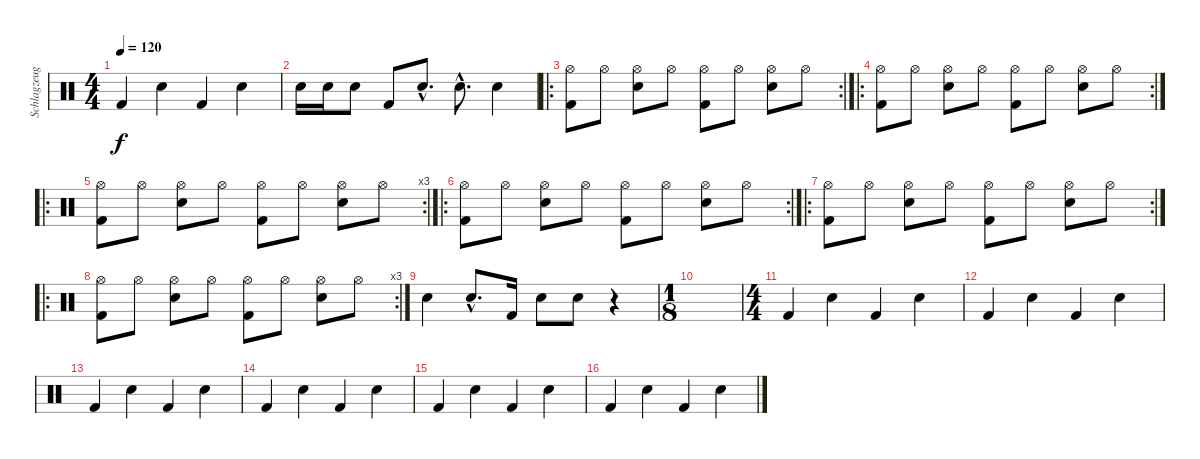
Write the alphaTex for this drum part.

\track ("Schlagzeug" "Schlagzeug") {instrument percussion}
\staff {score}
\articulation defaults
\ts (4 4)
\tempo 120
\clef neutral
\ks c "Kick (hit) 2".4{dy f} "Snare (hit) 2".4 "Kick (hit) 2".4 "Snare (hit) 2".4
|
"Snare (hit) 2".16 "Snare (hit) 2".16 "Snare (hit) 2".8 "Kick (hit) 2".8 "Snare (hit) 2"{hac}.8{d} "Snare (hit) 2"{hac}.8{d} "Snare (hit) 2".4 |
\ro
\rc 2
("Hi-Hat (open)" "Kick (hit) 2").8 "Hi-Hat (open)".8 ("Hi-Hat (open)" "Snare (hit) 2").8 "Hi-Hat (open)".8 ("Hi-Hat (open)" "Kick (hit) 2").8 "Hi-Hat (open)".8 ("Hi-Hat (open)" "Snare (hit) 2").8 "Hi-Hat (open)".8 |
\ro
\rc 2
("Hi-Hat (open)" "Kick (hit) 2").8 "Hi-Hat (open)".8 ("Hi-Hat (open)" "Snare (hit) 2").8 "Hi-Hat (open)".8 ("Hi-Hat (open)" "Kick (hit) 2").8 "Hi-Hat (open)".8 ("Hi-Hat (open)" "Snare (hit) 2").8 "Hi-Hat (open)".8 |
\ro
\rc 3
("Hi-Hat (open)" "Kick (hit) 2").8 "Hi-Hat (open)".8 ("Hi-Hat (open)" "Snare (hit) 2").8 "Hi-Hat (open)".8 ("Hi-Hat (open)" "Kick (hit) 2").8 "Hi-Hat (open)".8 ("Hi-Hat (open)" "Snare (hit) 2").8 "Hi-Hat (open)".8 |
\ro
\rc 2
("Hi-Hat (open)" "Kick (hit) 2").8 "Hi-Hat (open)".8 ("Hi-Hat (open)" "Snare (hit) 2").8 "Hi-Hat (open)".8 ("Hi-Hat (open)" "Kick (hit) 2").8 "Hi-Hat (open)".8 ("Hi-Hat (open)" "Snare (hit) 2").8 "Hi-Hat (open)".8 |
\ro
\rc 2
("Hi-Hat (open)" "Kick (hit) 2").8 "Hi-Hat (open)".8 ("Hi-Hat (open)" "Snare (hit) 2").8 "Hi-Hat (open)".8 ("Hi-Hat (open)" "Kick (hit) 2").8 "Hi-Hat (open)".8 ("Hi-Hat (open)" "Snare (hit) 2").8 "Hi-Hat (open)".8 |
\ro
\rc 3
("Hi-Hat (open)" "Kick (hit) 2").8 "Hi-Hat (open)".8 ("Hi-Hat (open)" "Snare (hit) 2").8 "Hi-Hat (open)".8 ("Hi-Hat (open)" "Kick (hit) 2").8 "Hi-Hat (open)".8 ("Hi-Hat (open)" "Snare (hit) 2").8 "Hi-Hat (open)".8 |
"Snare (hit) 2".4 "Snare (hit) 2"{hac}.8{d} "Kick (hit) 2".16 "Snare (hit) 2".8 "Snare (hit) 2".8 r.4 |
\ts (1 8)
|
\ts (4 4)
"Kick (hit) 2".4 "Snare (hit) 2".4 "Kick (hit) 2".4 "Snare (hit) 2".4 |
"Kick (hit) 2".4 "Snare (hit) 2".4 "Kick (hit) 2".4 "Snare (hit) 2".4 |
"Kick (hit) 2".4 "Snare (hit) 2".4 "Kick (hit) 2".4 "Snare (hit) 2".4 |
"Kick (hit) 2".4 "Snare (hit) 2".4 "Kick (hit) 2".4 "Snare (hit) 2".4 |
"Kick (hit) 2".4 "Snare (hit) 2".4 "Kick (hit) 2".4 "Snare (hit) 2".4 |
"Kick (hit) 2".4 "Snare (hit) 2".4 "Kick (hit) 2".4 "Snare (hit) 2".4
